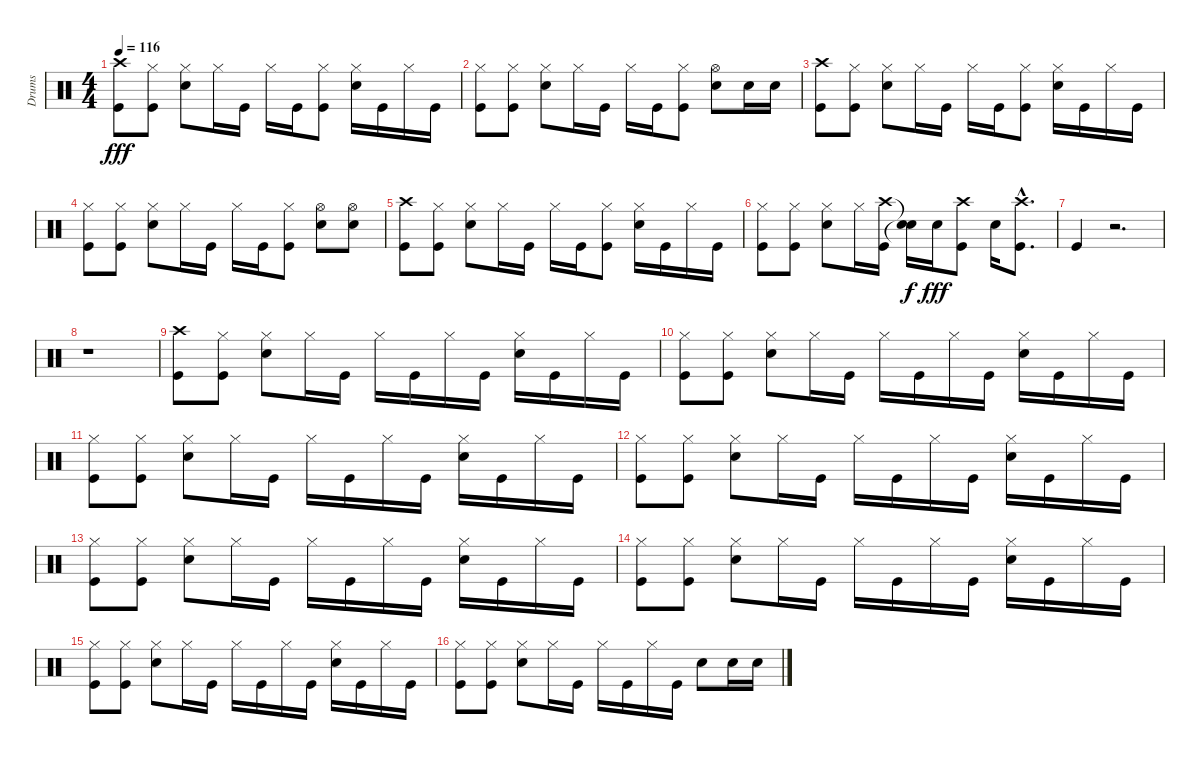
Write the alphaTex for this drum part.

\track ("Drums" "Drums") {instrument percussion}
\staff {score}
\articulation defaults
\ts (4 4)
\tempo 116
\clef neutral
\ks c
("Kick (hit)" "Crash high (hit)").8{dy fff} ("Kick (hit)" "Hi-Hat (closed)").8 ("Snare (hit) 2" "Hi-Hat (closed)").8 "Hi-Hat (closed)".16 "Kick (hit)".16 "Hi-Hat (closed)".16 "Kick (hit)".16 ("Kick (hit)" "Hi-Hat (closed)").8 ("Hi-Hat (closed)" "Snare (hit) 2").16 "Kick (hit)".16 "Hi-Hat (closed)".16 "Kick (hit)".16 |
("Hi-Hat (closed)" "Kick (hit)").8 ("Hi-Hat (closed)" "Kick (hit)").8 ("Snare (hit) 2" "Hi-Hat (closed)").8 "Hi-Hat (closed)".16 "Kick (hit)".16 "Hi-Hat (closed)".16 "Kick (hit)".16 ("Hi-Hat (closed)" "Kick (hit)").8 ("Snare (hit) 2" "Hi-Hat (open)").8 "Snare (hit) 2".16 "Snare (hit) 2".16 |
("Crash high (hit)" "Kick (hit)").8 ("Kick (hit)" "Hi-Hat (closed)").8 ("Hi-Hat (closed)" "Snare (hit) 2").8 "Hi-Hat (closed)".16 "Kick (hit)".16 "Hi-Hat (closed)".16 "Kick (hit)".16 ("Hi-Hat (closed)" "Kick (hit)").8 ("Snare (hit) 2" "Hi-Hat (closed)").16 "Kick (hit)".16 "Hi-Hat (closed)".16 "Kick (hit)".16 |
("Kick (hit)" "Hi-Hat (closed)").8 ("Hi-Hat (closed)" "Kick (hit)").8 ("Snare (hit) 2" "Hi-Hat (closed)").8 "Hi-Hat (closed)".16 "Kick (hit)".16 "Hi-Hat (closed)".16 "Kick (hit)".16 ("Kick (hit)" "Hi-Hat (closed)").8 ("Hi-Hat (open)" "Snare (hit) 2").8 ("Hi-Hat (open)" "Snare (hit) 2").8 |
("Kick (hit)" "Crash high (hit)").8 ("Hi-Hat (closed)" "Kick (hit)").8 ("Hi-Hat (closed)" "Snare (hit) 2").8 "Hi-Hat (closed)".16 "Kick (hit)".16 "Hi-Hat (closed)".16 "Kick (hit)".16 ("Hi-Hat (closed)" "Kick (hit)").8 ("Hi-Hat (closed)" "Snare (hit) 2").16 "Kick (hit)".16 "Hi-Hat (closed)".16 "Kick (hit)".16 |
("Kick (hit)" "Hi-Hat (closed)").8 ("Hi-Hat (closed)" "Kick (hit)").8 ("Snare (hit) 2" "Hi-Hat (closed)").8 "Hi-Hat (closed)".16 ("Kick (hit)" "Crash high (hit)").16 ("Snare (hit)"{t} "Snare (hit)"{t}).16{dy f} "Snare (hit) 2".16{dy fff} ("Crash high (hit)" "Kick (hit)").8 "Snare (hit) 2".16 ("Kick (hit)" "Crash high (hit)"{hac}).8{d} |
"Kick (hit)".4 r.2{d} |
r.1 |
("Crash high (hit)" "Kick (hit)").8 ("Hi-Hat (closed)" "Kick (hit)").8 ("Snare (hit) 2" "Hi-Hat (closed)").8 "Hi-Hat (closed)".16 "Kick (hit)".16 "Hi-Hat (closed)".16 "Kick (hit)".16 "Hi-Hat (closed)".16 "Kick (hit)".16 ("Snare (hit) 2" "Hi-Hat (closed)").16 "Kick (hit)".16 "Hi-Hat (closed)".16 "Kick (hit)".16 |
("Kick (hit)" "Hi-Hat (closed)").8 ("Kick (hit)" "Hi-Hat (closed)").8 ("Snare (hit) 2" "Hi-Hat (closed)").8 "Hi-Hat (closed)".16 "Kick (hit)".16 "Hi-Hat (closed)".16 "Kick (hit)".16 "Hi-Hat (closed)".16 "Kick (hit)".16 ("Snare (hit) 2" "Hi-Hat (closed)").16 "Kick (hit)".16 "Hi-Hat (closed)".16 "Kick (hit)".16 |
("Kick (hit)" "Hi-Hat (closed)").8 ("Hi-Hat (closed)" "Kick (hit)").8 ("Snare (hit) 2" "Hi-Hat (closed)").8 "Hi-Hat (closed)".16 "Kick (hit)".16 "Hi-Hat (closed)".16 "Kick (hit)".16 "Hi-Hat (closed)".16 "Kick (hit)".16 ("Snare (hit) 2" "Hi-Hat (closed)").16 "Kick (hit)".16 "Hi-Hat (closed)".16 "Kick (hit)".16 |
("Kick (hit)" "Hi-Hat (closed)").8 ("Hi-Hat (closed)" "Kick (hit)").8 ("Snare (hit) 2" "Hi-Hat (closed)").8 "Hi-Hat (closed)".16 "Kick (hit)".16 "Hi-Hat (closed)".16 "Kick (hit)".16 "Hi-Hat (closed)".16 "Kick (hit)".16 ("Hi-Hat (closed)" "Snare (hit) 2").16 "Kick (hit)".16 "Hi-Hat (closed)".16 "Kick (hit)".16 |
("Hi-Hat (closed)" "Kick (hit)").8 ("Hi-Hat (closed)" "Kick (hit)").8 ("Snare (hit) 2" "Hi-Hat (closed)").8 "Hi-Hat (closed)".16 "Kick (hit)".16 "Hi-Hat (closed)".16 "Kick (hit)".16 "Hi-Hat (closed)".16 "Kick (hit)".16 ("Snare (hit) 2" "Hi-Hat (closed)").16 "Kick (hit)".16 "Hi-Hat (closed)".16 "Kick (hit)".16 |
("Hi-Hat (closed)" "Kick (hit)").8 ("Kick (hit)" "Hi-Hat (closed)").8 ("Snare (hit) 2" "Hi-Hat (closed)").8 "Hi-Hat (closed)".16 "Kick (hit)".16 "Hi-Hat (closed)".16 "Kick (hit)".16 "Hi-Hat (closed)".16 "Kick (hit)".16 ("Snare (hit) 2" "Hi-Hat (closed)").16 "Kick (hit)".16 "Hi-Hat (closed)".16 "Kick (hit)".16 |
("Kick (hit)" "Hi-Hat (closed)").8 ("Hi-Hat (closed)" "Kick (hit)").8 ("Snare (hit) 2" "Hi-Hat (closed)").8 "Hi-Hat (closed)".16 "Kick (hit)".16 "Hi-Hat (closed)".16 "Kick (hit)".16 "Hi-Hat (closed)".16 "Kick (hit)".16 ("Snare (hit) 2" "Hi-Hat (closed)").16 "Kick (hit)".16 "Hi-Hat (closed)".16 "Kick (hit)".16 |
("Hi-Hat (closed)" "Kick (hit)").8 ("Hi-Hat (closed)" "Kick (hit)").8 ("Hi-Hat (closed)" "Snare (hit) 2").8 "Hi-Hat (closed)".16 "Kick (hit)".16 "Hi-Hat (closed)".16 "Kick (hit)".16 "Hi-Hat (closed)".16 "Kick (hit)".16 "Snare (hit) 2".8 "Snare (hit) 2".16 "Snare (hit) 2".16
